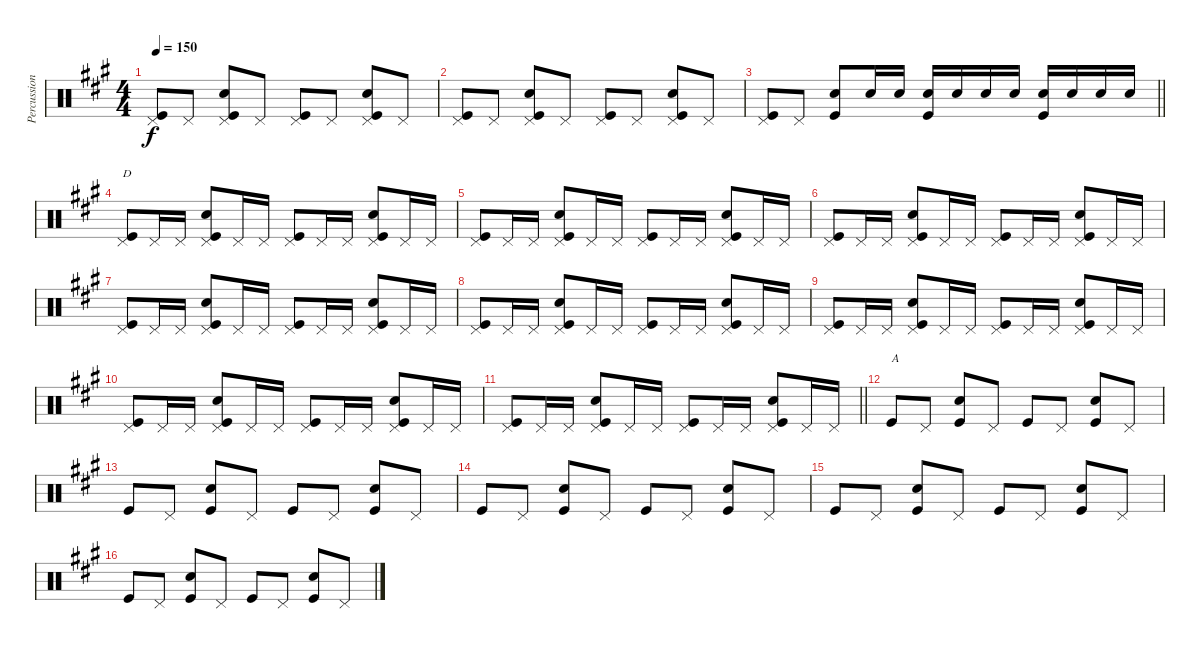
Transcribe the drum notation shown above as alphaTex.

\track ("Percussions" "Percussion") {instrument percussion}
\staff {score}
\articulation defaults
\ts (4 4)
\tempo 150
\clef neutral
\ks a
("Kick (hit)" "Pedal Hi-Hat (hit)").8{dy f} "Pedal Hi-Hat (hit)".8 ("Snare (hit) 2" "Kick (hit)" "Pedal Hi-Hat (hit)").8 "Pedal Hi-Hat (hit)".8 ("Kick (hit)" "Pedal Hi-Hat (hit)").8 "Pedal Hi-Hat (hit)".8 ("Snare (hit) 2" "Kick (hit)" "Pedal Hi-Hat (hit)").8 "Pedal Hi-Hat (hit)".8 |
("Kick (hit)" "Pedal Hi-Hat (hit)").8 "Pedal Hi-Hat (hit)".8 ("Snare (hit) 2" "Kick (hit)" "Pedal Hi-Hat (hit)").8 "Pedal Hi-Hat (hit)".8 ("Kick (hit)" "Pedal Hi-Hat (hit)").8 "Pedal Hi-Hat (hit)".8 ("Snare (hit) 2" "Kick (hit)" "Pedal Hi-Hat (hit)").8 "Pedal Hi-Hat (hit)".8 |
\barLineRight lightlight
("Kick (hit)" "Pedal Hi-Hat (hit)").8 "Pedal Hi-Hat (hit)".8 ("Snare (hit) 2" "Kick (hit)").8 "Snare (hit) 2".16 "Snare (hit) 2".16 ("Snare (hit) 2" "Kick (hit)").16 "Snare (hit) 2".16 "Snare (hit) 2".16 "Snare (hit) 2".16 ("Snare (hit) 2" "Kick (hit)").16 "Snare (hit) 2".16 "Snare (hit) 2".16 "Snare (hit) 2".16 |
("Kick (hit)" "Pedal Hi-Hat (hit)").8{txt "D"} "Pedal Hi-Hat (hit)".16 "Pedal Hi-Hat (hit)".16 ("Snare (hit) 2" "Kick (hit)" "Pedal Hi-Hat (hit)").8 "Pedal Hi-Hat (hit)".16 "Pedal Hi-Hat (hit)".16 ("Kick (hit)" "Pedal Hi-Hat (hit)").8 "Pedal Hi-Hat (hit)".16 "Pedal Hi-Hat (hit)".16 ("Snare (hit) 2" "Kick (hit)" "Pedal Hi-Hat (hit)").8 "Pedal Hi-Hat (hit)".16 "Pedal Hi-Hat (hit)".16 |
("Kick (hit)" "Pedal Hi-Hat (hit)").8 "Pedal Hi-Hat (hit)".16 "Pedal Hi-Hat (hit)".16 ("Snare (hit) 2" "Kick (hit)" "Pedal Hi-Hat (hit)").8 "Pedal Hi-Hat (hit)".16 "Pedal Hi-Hat (hit)".16 ("Kick (hit)" "Pedal Hi-Hat (hit)").8 "Pedal Hi-Hat (hit)".16 "Pedal Hi-Hat (hit)".16 ("Snare (hit) 2" "Kick (hit)" "Pedal Hi-Hat (hit)").8 "Pedal Hi-Hat (hit)".16 "Pedal Hi-Hat (hit)".16 |
("Kick (hit)" "Pedal Hi-Hat (hit)").8 "Pedal Hi-Hat (hit)".16 "Pedal Hi-Hat (hit)".16 ("Snare (hit) 2" "Kick (hit)" "Pedal Hi-Hat (hit)").8 "Pedal Hi-Hat (hit)".16 "Pedal Hi-Hat (hit)".16 ("Kick (hit)" "Pedal Hi-Hat (hit)").8 "Pedal Hi-Hat (hit)".16 "Pedal Hi-Hat (hit)".16 ("Snare (hit) 2" "Kick (hit)" "Pedal Hi-Hat (hit)").8 "Pedal Hi-Hat (hit)".16 "Pedal Hi-Hat (hit)".16 |
("Kick (hit)" "Pedal Hi-Hat (hit)").8 "Pedal Hi-Hat (hit)".16 "Pedal Hi-Hat (hit)".16 ("Snare (hit) 2" "Kick (hit)" "Pedal Hi-Hat (hit)").8 "Pedal Hi-Hat (hit)".16 "Pedal Hi-Hat (hit)".16 ("Kick (hit)" "Pedal Hi-Hat (hit)").8 "Pedal Hi-Hat (hit)".16 "Pedal Hi-Hat (hit)".16 ("Snare (hit) 2" "Kick (hit)" "Pedal Hi-Hat (hit)").8 "Pedal Hi-Hat (hit)".16 "Pedal Hi-Hat (hit)".16 |
("Kick (hit)" "Pedal Hi-Hat (hit)").8 "Pedal Hi-Hat (hit)".16 "Pedal Hi-Hat (hit)".16 ("Snare (hit) 2" "Kick (hit)" "Pedal Hi-Hat (hit)").8 "Pedal Hi-Hat (hit)".16 "Pedal Hi-Hat (hit)".16 ("Kick (hit)" "Pedal Hi-Hat (hit)").8 "Pedal Hi-Hat (hit)".16 "Pedal Hi-Hat (hit)".16 ("Snare (hit) 2" "Kick (hit)" "Pedal Hi-Hat (hit)").8 "Pedal Hi-Hat (hit)".16 "Pedal Hi-Hat (hit)".16 |
("Kick (hit)" "Pedal Hi-Hat (hit)").8 "Pedal Hi-Hat (hit)".16 "Pedal Hi-Hat (hit)".16 ("Snare (hit) 2" "Kick (hit)" "Pedal Hi-Hat (hit)").8 "Pedal Hi-Hat (hit)".16 "Pedal Hi-Hat (hit)".16 ("Kick (hit)" "Pedal Hi-Hat (hit)").8 "Pedal Hi-Hat (hit)".16 "Pedal Hi-Hat (hit)".16 ("Snare (hit) 2" "Kick (hit)" "Pedal Hi-Hat (hit)").8 "Pedal Hi-Hat (hit)".16 "Pedal Hi-Hat (hit)".16 |
("Kick (hit)" "Pedal Hi-Hat (hit)").8 "Pedal Hi-Hat (hit)".16 "Pedal Hi-Hat (hit)".16 ("Snare (hit) 2" "Kick (hit)" "Pedal Hi-Hat (hit)").8 "Pedal Hi-Hat (hit)".16 "Pedal Hi-Hat (hit)".16 ("Kick (hit)" "Pedal Hi-Hat (hit)").8 "Pedal Hi-Hat (hit)".16 "Pedal Hi-Hat (hit)".16 ("Snare (hit) 2" "Kick (hit)" "Pedal Hi-Hat (hit)").8 "Pedal Hi-Hat (hit)".16 "Pedal Hi-Hat (hit)".16 |
\barLineRight lightlight
("Kick (hit)" "Pedal Hi-Hat (hit)").8 "Pedal Hi-Hat (hit)".16 "Pedal Hi-Hat (hit)".16 ("Snare (hit) 2" "Kick (hit)" "Pedal Hi-Hat (hit)").8 "Pedal Hi-Hat (hit)".16 "Pedal Hi-Hat (hit)".16 ("Kick (hit)" "Pedal Hi-Hat (hit)").8 "Pedal Hi-Hat (hit)".16 "Pedal Hi-Hat (hit)".16 ("Snare (hit) 2" "Kick (hit)" "Pedal Hi-Hat (hit)").8 "Pedal Hi-Hat (hit)".16 "Pedal Hi-Hat (hit)".16 |
"Kick (hit)".8{txt "A"} "Pedal Hi-Hat (hit)".8 ("Snare (hit) 2" "Kick (hit)").8 "Pedal Hi-Hat (hit)".8 "Kick (hit)".8 "Pedal Hi-Hat (hit)".8 ("Snare (hit) 2" "Kick (hit)").8 "Pedal Hi-Hat (hit)".8 |
"Kick (hit)".8 "Pedal Hi-Hat (hit)".8 ("Snare (hit) 2" "Kick (hit)").8 "Pedal Hi-Hat (hit)".8 "Kick (hit)".8 "Pedal Hi-Hat (hit)".8 ("Snare (hit) 2" "Kick (hit)").8 "Pedal Hi-Hat (hit)".8 |
"Kick (hit)".8 "Pedal Hi-Hat (hit)".8 ("Snare (hit) 2" "Kick (hit)").8 "Pedal Hi-Hat (hit)".8 "Kick (hit)".8 "Pedal Hi-Hat (hit)".8 ("Snare (hit) 2" "Kick (hit)").8 "Pedal Hi-Hat (hit)".8 |
"Kick (hit)".8 "Pedal Hi-Hat (hit)".8 ("Snare (hit) 2" "Kick (hit)").8 "Pedal Hi-Hat (hit)".8 "Kick (hit)".8 "Pedal Hi-Hat (hit)".8 ("Snare (hit) 2" "Kick (hit)").8 "Pedal Hi-Hat (hit)".8 |
"Kick (hit)".8 "Pedal Hi-Hat (hit)".8 ("Snare (hit) 2" "Kick (hit)").8 "Pedal Hi-Hat (hit)".8 "Kick (hit)".8 "Pedal Hi-Hat (hit)".8 ("Snare (hit) 2" "Kick (hit)").8 "Pedal Hi-Hat (hit)".8
